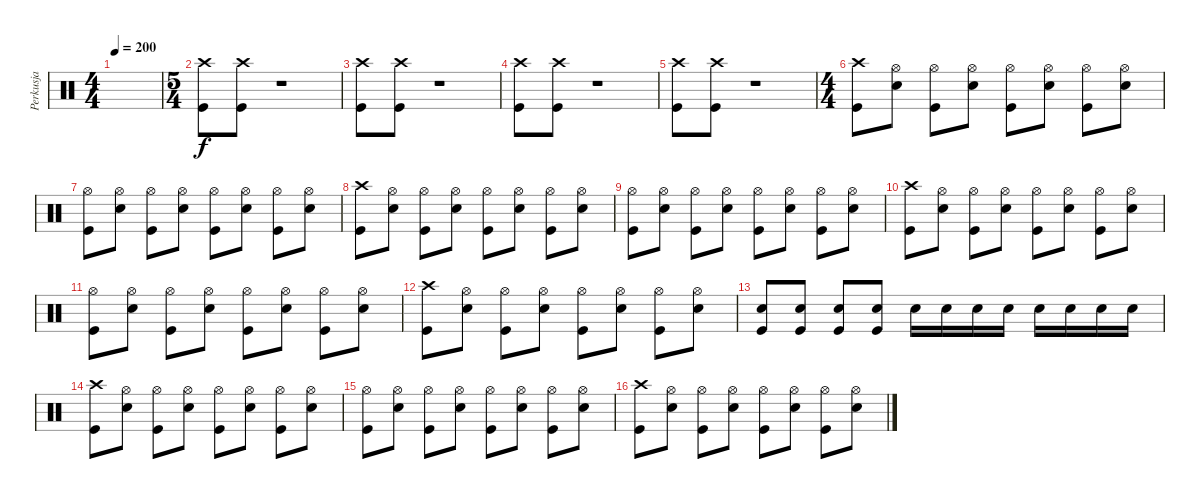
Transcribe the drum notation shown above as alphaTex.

\track ("Perkusja" "Perkusja") {instrument percussion}
\staff {score}
\articulation defaults
\ts (4 4)
\tempo 200
\clef neutral
\ks c
|
\ts (5 4)
("Crash high (hit)" "Kick (hit)").8 ("Crash high (hit)" "Kick (hit)").8 r.1 |
("Crash high (hit)" "Kick (hit)").8 ("Crash high (hit)" "Kick (hit)").8 r.1 |
("Crash high (hit)" "Kick (hit)").8 ("Crash high (hit)" "Kick (hit)").8 r.1 |
("Crash high (hit)" "Kick (hit)").8 ("Crash high (hit)" "Kick (hit)").8 r.1 |
\ts (4 4)
("Crash high (hit)" "Kick (hit)").8 ("Hi-Hat (open)" "Electric Snare (hit)").8 ("Hi-Hat (open)" "Kick (hit)").8 ("Hi-Hat (open)" "Electric Snare (hit)").8 ("Hi-Hat (open)" "Kick (hit)").8 ("Hi-Hat (open)" "Electric Snare (hit)").8 ("Hi-Hat (open)" "Kick (hit)").8 ("Hi-Hat (open)" "Electric Snare (hit)").8 |
("Hi-Hat (open)" "Kick (hit)").8 ("Hi-Hat (open)" "Electric Snare (hit)").8 ("Hi-Hat (open)" "Kick (hit)").8 ("Hi-Hat (open)" "Electric Snare (hit)").8 ("Hi-Hat (open)" "Kick (hit)").8 ("Hi-Hat (open)" "Electric Snare (hit)").8 ("Hi-Hat (open)" "Kick (hit)").8 ("Hi-Hat (open)" "Electric Snare (hit)").8 |
("Crash high (hit)" "Kick (hit)").8 ("Hi-Hat (open)" "Electric Snare (hit)").8 ("Hi-Hat (open)" "Kick (hit)").8 ("Hi-Hat (open)" "Electric Snare (hit)").8 ("Hi-Hat (open)" "Kick (hit)").8 ("Hi-Hat (open)" "Electric Snare (hit)").8 ("Hi-Hat (open)" "Kick (hit)").8 ("Hi-Hat (open)" "Electric Snare (hit)").8 |
("Hi-Hat (open)" "Kick (hit)").8 ("Hi-Hat (open)" "Electric Snare (hit)").8 ("Hi-Hat (open)" "Kick (hit)").8 ("Hi-Hat (open)" "Electric Snare (hit)").8 ("Hi-Hat (open)" "Kick (hit)").8 ("Hi-Hat (open)" "Electric Snare (hit)").8 ("Hi-Hat (open)" "Kick (hit)").8 ("Hi-Hat (open)" "Electric Snare (hit)").8 |
("Crash high (hit)" "Kick (hit)").8 ("Hi-Hat (open)" "Electric Snare (hit)").8 ("Hi-Hat (open)" "Kick (hit)").8 ("Hi-Hat (open)" "Electric Snare (hit)").8 ("Hi-Hat (open)" "Kick (hit)").8 ("Hi-Hat (open)" "Electric Snare (hit)").8 ("Hi-Hat (open)" "Kick (hit)").8 ("Hi-Hat (open)" "Electric Snare (hit)").8 |
("Hi-Hat (open)" "Kick (hit)").8 ("Hi-Hat (open)" "Electric Snare (hit)").8 ("Hi-Hat (open)" "Kick (hit)").8 ("Hi-Hat (open)" "Electric Snare (hit)").8 ("Hi-Hat (open)" "Kick (hit)").8 ("Hi-Hat (open)" "Electric Snare (hit)").8 ("Hi-Hat (open)" "Kick (hit)").8 ("Hi-Hat (open)" "Electric Snare (hit)").8 |
("Crash high (hit)" "Kick (hit)").8 ("Hi-Hat (open)" "Electric Snare (hit)").8 ("Hi-Hat (open)" "Kick (hit)").8 ("Hi-Hat (open)" "Electric Snare (hit)").8 ("Hi-Hat (open)" "Kick (hit)").8 ("Hi-Hat (open)" "Electric Snare (hit)").8 ("Hi-Hat (open)" "Kick (hit)").8 ("Hi-Hat (open)" "Electric Snare (hit)").8 |
("Electric Snare (hit)" "Kick (hit)").8 ("Electric Snare (hit)" "Kick (hit)").8 ("Electric Snare (hit)" "Kick (hit)").8 ("Electric Snare (hit)" "Kick (hit)").8 "Electric Snare (hit)".16 "Electric Snare (hit)".16 "Electric Snare (hit)".16 "Electric Snare (hit)".16 "Electric Snare (hit)".16 "Electric Snare (hit)".16 "Electric Snare (hit)".16 "Electric Snare (hit)".16 |
("Crash high (hit)" "Kick (hit)").8 ("Hi-Hat (open)" "Electric Snare (hit)").8 ("Hi-Hat (open)" "Kick (hit)").8 ("Hi-Hat (open)" "Electric Snare (hit)").8 ("Hi-Hat (open)" "Kick (hit)").8 ("Hi-Hat (open)" "Electric Snare (hit)").8 ("Hi-Hat (open)" "Kick (hit)").8 ("Hi-Hat (open)" "Electric Snare (hit)").8 |
("Hi-Hat (open)" "Kick (hit)").8 ("Hi-Hat (open)" "Electric Snare (hit)").8 ("Hi-Hat (open)" "Kick (hit)").8 ("Hi-Hat (open)" "Electric Snare (hit)").8 ("Hi-Hat (open)" "Kick (hit)").8 ("Hi-Hat (open)" "Electric Snare (hit)").8 ("Hi-Hat (open)" "Kick (hit)").8 ("Hi-Hat (open)" "Electric Snare (hit)").8 |
("Crash high (hit)" "Kick (hit)").8 ("Hi-Hat (open)" "Electric Snare (hit)").8 ("Hi-Hat (open)" "Kick (hit)").8 ("Hi-Hat (open)" "Electric Snare (hit)").8 ("Hi-Hat (open)" "Kick (hit)").8 ("Hi-Hat (open)" "Electric Snare (hit)").8 ("Hi-Hat (open)" "Kick (hit)").8 ("Hi-Hat (open)" "Electric Snare (hit)").8
